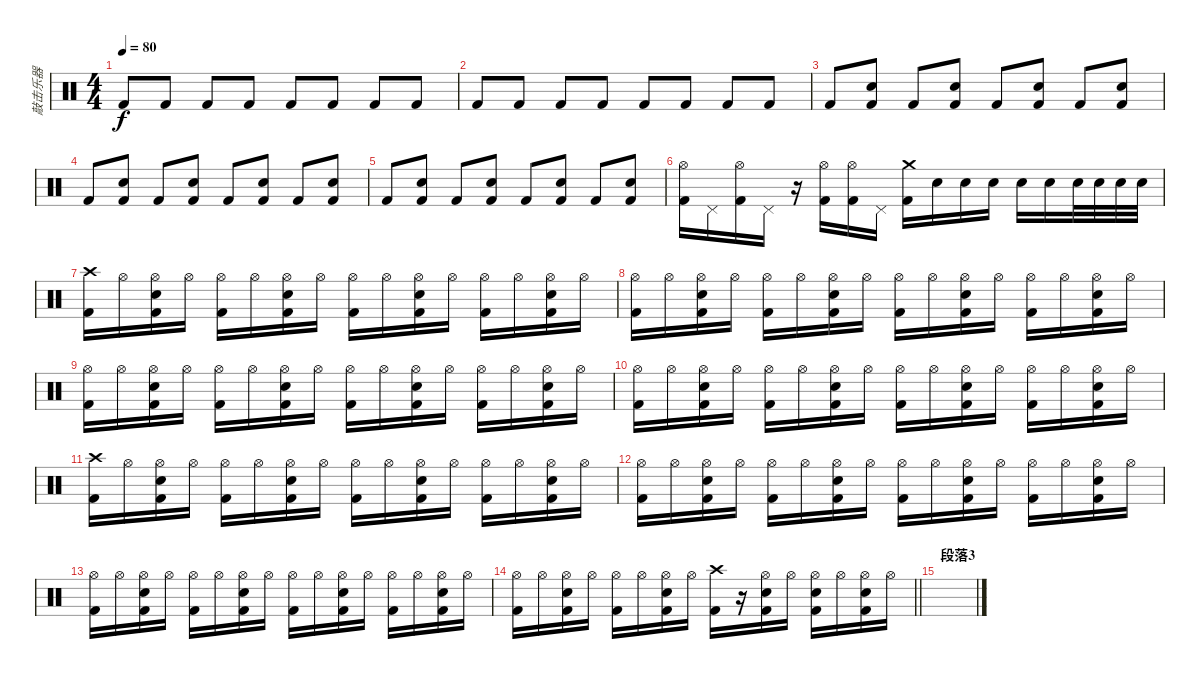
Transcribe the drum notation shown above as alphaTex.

\track ("敲击乐器" "敲击乐器") {instrument percussion}
\staff {score}
\articulation defaults
\ts (4 4)
\tempo 80
\clef neutral
\ks c "Kick (hit) 2".8{dy f} "Kick (hit) 2".8 "Kick (hit) 2".8 "Kick (hit) 2".8 "Kick (hit) 2".8 "Kick (hit) 2".8 "Kick (hit) 2".8 "Kick (hit) 2".8
|
"Kick (hit) 2".8 "Kick (hit) 2".8 "Kick (hit) 2".8 "Kick (hit) 2".8 "Kick (hit) 2".8 "Kick (hit) 2".8 "Kick (hit) 2".8 "Kick (hit) 2".8 |
"Kick (hit) 2".8 ("Electric Snare (hit)" "Kick (hit) 2").8 "Kick (hit) 2".8 ("Electric Snare (hit)" "Kick (hit) 2").8 "Kick (hit) 2".8 ("Electric Snare (hit)" "Kick (hit) 2").8 "Kick (hit) 2".8 ("Electric Snare (hit)" "Kick (hit) 2").8 |
"Kick (hit) 2".8 ("Electric Snare (hit)" "Kick (hit) 2").8 "Kick (hit) 2".8 ("Electric Snare (hit)" "Kick (hit) 2").8 "Kick (hit) 2".8 ("Electric Snare (hit)" "Kick (hit) 2").8 "Kick (hit) 2".8 ("Electric Snare (hit)" "Kick (hit) 2").8 |
"Kick (hit) 2".8 ("Electric Snare (hit)" "Kick (hit) 2").8 "Kick (hit) 2".8 ("Electric Snare (hit)" "Kick (hit) 2").8 "Kick (hit) 2".8 ("Electric Snare (hit)" "Kick (hit) 2").8 "Kick (hit) 2".8 ("Electric Snare (hit)" "Kick (hit) 2").8 |
("Hi-Hat (open)" "Kick (hit) 2").16 "Pedal Hi-Hat (hit)".16 ("Hi-Hat (open)" "Kick (hit) 2").16 "Pedal Hi-Hat (hit)".16 r.16 ("Hi-Hat (open)" "Kick (hit) 2").16 ("Hi-Hat (open)" "Kick (hit) 2").16 "Pedal Hi-Hat (hit)".16 ("Crash medium (hit)" "Kick (hit) 2").16 "Electric Snare (hit)".16 "Electric Snare (hit)".16 "Electric Snare (hit)".16 "Electric Snare (hit)".16 "Electric Snare (hit)".16 "Electric Snare (hit)".32 "Electric Snare (hit)".32 "Electric Snare (hit)".32 "Electric Snare (hit)".32 |
("Crash high (hit)" "Kick (hit) 2").16 "Hi-Hat (open)".16 ("Hi-Hat (open)" "Electric Snare (hit)" "Kick (hit) 2").16 "Hi-Hat (open)".16 ("Hi-Hat (open)" "Kick (hit) 2").16 "Hi-Hat (open)".16 ("Hi-Hat (open)" "Electric Snare (hit)" "Kick (hit) 2").16 "Hi-Hat (open)".16 ("Hi-Hat (open)" "Kick (hit) 2").16 "Hi-Hat (open)".16 ("Hi-Hat (open)" "Electric Snare (hit)" "Kick (hit) 2").16 "Hi-Hat (open)".16 ("Hi-Hat (open)" "Kick (hit) 2").16 "Hi-Hat (open)".16 ("Hi-Hat (open)" "Electric Snare (hit)" "Kick (hit) 2").16 "Hi-Hat (open)".16 |
("Hi-Hat (open)" "Kick (hit) 2").16 "Hi-Hat (open)".16 ("Hi-Hat (open)" "Electric Snare (hit)" "Kick (hit) 2").16 "Hi-Hat (open)".16 ("Hi-Hat (open)" "Kick (hit) 2").16 "Hi-Hat (open)".16 ("Hi-Hat (open)" "Electric Snare (hit)" "Kick (hit) 2").16 "Hi-Hat (open)".16 ("Hi-Hat (open)" "Kick (hit) 2").16 "Hi-Hat (open)".16 ("Hi-Hat (open)" "Electric Snare (hit)" "Kick (hit) 2").16 "Hi-Hat (open)".16 ("Hi-Hat (open)" "Kick (hit) 2").16 "Hi-Hat (open)".16 ("Hi-Hat (open)" "Electric Snare (hit)" "Kick (hit) 2").16 "Hi-Hat (open)".16 |
("Hi-Hat (open)" "Kick (hit) 2").16 "Hi-Hat (open)".16 ("Hi-Hat (open)" "Electric Snare (hit)" "Kick (hit) 2").16 "Hi-Hat (open)".16 ("Hi-Hat (open)" "Kick (hit) 2").16 "Hi-Hat (open)".16 ("Hi-Hat (open)" "Electric Snare (hit)" "Kick (hit) 2").16 "Hi-Hat (open)".16 ("Hi-Hat (open)" "Kick (hit) 2").16 "Hi-Hat (open)".16 ("Hi-Hat (open)" "Electric Snare (hit)" "Kick (hit) 2").16 "Hi-Hat (open)".16 ("Hi-Hat (open)" "Kick (hit) 2").16 "Hi-Hat (open)".16 ("Hi-Hat (open)" "Electric Snare (hit)" "Kick (hit) 2").16 "Hi-Hat (open)".16 |
("Hi-Hat (open)" "Kick (hit) 2").16 "Hi-Hat (open)".16 ("Hi-Hat (open)" "Electric Snare (hit)" "Kick (hit) 2").16 "Hi-Hat (open)".16 ("Hi-Hat (open)" "Kick (hit) 2").16 "Hi-Hat (open)".16 ("Hi-Hat (open)" "Electric Snare (hit)" "Kick (hit) 2").16 "Hi-Hat (open)".16 ("Hi-Hat (open)" "Kick (hit) 2").16 "Hi-Hat (open)".16 ("Hi-Hat (open)" "Electric Snare (hit)" "Kick (hit) 2").16 "Hi-Hat (open)".16 ("Hi-Hat (open)" "Kick (hit) 2").16 "Hi-Hat (open)".16 ("Hi-Hat (open)" "Electric Snare (hit)" "Kick (hit) 2").16 "Hi-Hat (open)".16 |
("Crash high (hit)" "Kick (hit) 2").16 "Hi-Hat (open)".16 ("Hi-Hat (open)" "Electric Snare (hit)" "Kick (hit) 2").16 "Hi-Hat (open)".16 ("Hi-Hat (open)" "Kick (hit) 2").16 "Hi-Hat (open)".16 ("Hi-Hat (open)" "Electric Snare (hit)" "Kick (hit) 2").16 "Hi-Hat (open)".16 ("Hi-Hat (open)" "Kick (hit) 2").16 "Hi-Hat (open)".16 ("Hi-Hat (open)" "Electric Snare (hit)" "Kick (hit) 2").16 "Hi-Hat (open)".16 ("Hi-Hat (open)" "Kick (hit) 2").16 "Hi-Hat (open)".16 ("Hi-Hat (open)" "Electric Snare (hit)" "Kick (hit) 2").16 "Hi-Hat (open)".16 |
("Hi-Hat (open)" "Kick (hit) 2").16 "Hi-Hat (open)".16 ("Hi-Hat (open)" "Electric Snare (hit)" "Kick (hit) 2").16 "Hi-Hat (open)".16 ("Hi-Hat (open)" "Kick (hit) 2").16 "Hi-Hat (open)".16 ("Hi-Hat (open)" "Electric Snare (hit)" "Kick (hit) 2").16 "Hi-Hat (open)".16 ("Hi-Hat (open)" "Kick (hit) 2").16 "Hi-Hat (open)".16 ("Hi-Hat (open)" "Electric Snare (hit)" "Kick (hit) 2").16 "Hi-Hat (open)".16 ("Hi-Hat (open)" "Kick (hit) 2").16 "Hi-Hat (open)".16 ("Hi-Hat (open)" "Electric Snare (hit)" "Kick (hit) 2").16 "Hi-Hat (open)".16 |
("Hi-Hat (open)" "Kick (hit) 2").16 "Hi-Hat (open)".16 ("Hi-Hat (open)" "Electric Snare (hit)" "Kick (hit) 2").16 "Hi-Hat (open)".16 ("Hi-Hat (open)" "Kick (hit) 2").16 "Hi-Hat (open)".16 ("Hi-Hat (open)" "Electric Snare (hit)" "Kick (hit) 2").16 "Hi-Hat (open)".16 ("Hi-Hat (open)" "Kick (hit) 2").16 "Hi-Hat (open)".16 ("Hi-Hat (open)" "Electric Snare (hit)" "Kick (hit) 2").16 "Hi-Hat (open)".16 ("Hi-Hat (open)" "Kick (hit) 2").16 "Hi-Hat (open)".16 ("Hi-Hat (open)" "Electric Snare (hit)" "Kick (hit) 2").16 "Hi-Hat (open)".16 |
\barLineRight lightlight
("Hi-Hat (open)" "Kick (hit) 2").16 "Hi-Hat (open)".16 ("Hi-Hat (open)" "Electric Snare (hit)" "Kick (hit) 2").16 "Hi-Hat (open)".16 ("Hi-Hat (open)" "Kick (hit) 2").16 "Hi-Hat (open)".16 ("Hi-Hat (open)" "Electric Snare (hit)" "Kick (hit) 2").16 "Hi-Hat (open)".16 ("Crash high (hit)" "Kick (hit) 2").16 r.16 ("Hi-Hat (open)" "Electric Snare (hit)" "Kick (hit) 2").16 "Hi-Hat (open)".16 ("Hi-Hat (open)" "Electric Snare (hit)" "Kick (hit) 2").16 "Hi-Hat (open)".16 ("Hi-Hat (open)" "Electric Snare (hit)" "Kick (hit) 2").16 "Hi-Hat (open)".16 |
\section ("" "段落3")
